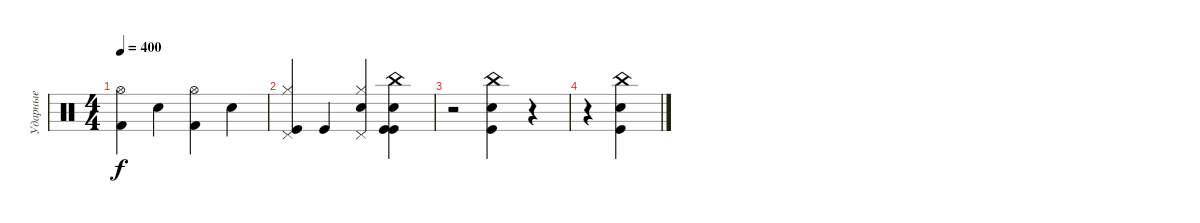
\track ("Ударные" "Ударные") {instrument percussion}
\staff {score}
\articulation defaults
\ts (4 4)
\tempo 400
\clef neutral
\ks c
("Kick (hit) 2" "Hi-Hat (open)").4{dy f} "Electric Snare (hit)".4 ("Kick (hit) 2" "Hi-Hat (open)").4 "Electric Snare (hit)".4 |
("Kick (hit)" "Hi-Hat (closed)" "Pedal Hi-Hat (hit)").4 "Kick (hit)".4 ("Electric Snare (hit)" "Pedal Hi-Hat (hit)" "Hi-Hat (closed)").4 ("Kick (hit)" "Kick (hit)" "Electric Snare (hit)" "China (hit)").4 |
r.2 ("China (hit)" "Kick (hit)" "Electric Snare (hit)").4 r.4 |
r.4 ("Electric Snare (hit)" "Kick (hit)" "China (hit)").4
